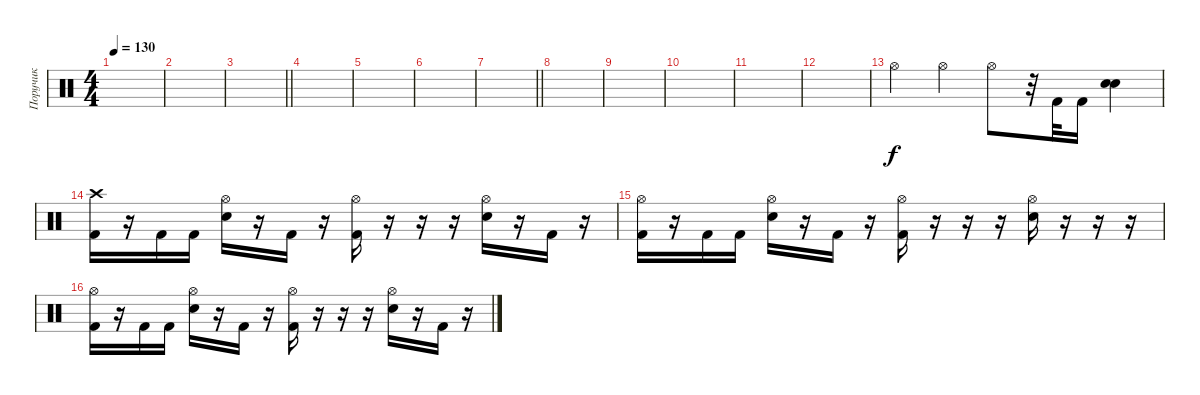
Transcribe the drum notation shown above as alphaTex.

\track ("Поручик" "Поручик") {instrument percussion}
\staff {score}
\articulation defaults
\ts (4 4)
\tempo 130
\clef neutral
\ks c
|
|
\barLineRight lightlight
|
|
|
|
\barLineRight lightlight
|
|
|
|
|
|
"Hi-Hat (open)".4 "Hi-Hat (open)".4 "Hi-Hat (open)".8 r.32 "Kick (hit) 2".32 "Kick (hit) 2".16 ("Snare (hit) 2" "Snare (hit) 2").4 |
("Crash high (hit)" "Kick (hit) 2").16 r.16 "Kick (hit) 2".16 "Kick (hit) 2".16 ("Hi-Hat (open)" "Snare (hit) 2").16 r.16 "Kick (hit) 2".16 r.16 ("Hi-Hat (open)" "Kick (hit) 2").16 r.16 r.16 r.16 ("Hi-Hat (open)" "Snare (hit) 2").16 r.16 "Kick (hit) 2".16 r.16 |
("Hi-Hat (open)" "Kick (hit) 2").16 r.16 "Kick (hit) 2".16 "Kick (hit) 2".16 ("Hi-Hat (open)" "Snare (hit) 2").16 r.16 "Kick (hit) 2".16 r.16 ("Hi-Hat (open)" "Kick (hit) 2").16 r.16 r.16 r.16 ("Hi-Hat (open)" "Snare (hit) 2").16 r.16 r.16 r.16 |
("Hi-Hat (open)" "Kick (hit) 2").16 r.16 "Kick (hit) 2".16 "Kick (hit) 2".16 ("Hi-Hat (open)" "Snare (hit) 2").16 r.16 "Kick (hit) 2".16 r.16 ("Hi-Hat (open)" "Kick (hit) 2").16 r.16 r.16 r.16 ("Hi-Hat (open)" "Snare (hit) 2").16 r.16 "Kick (hit) 2".16 r.16
